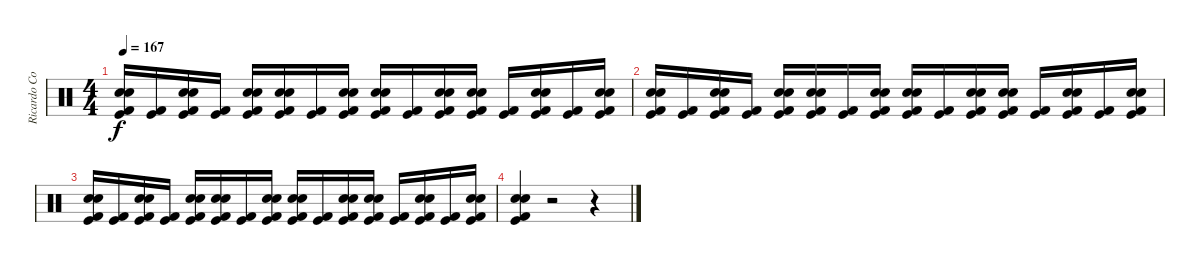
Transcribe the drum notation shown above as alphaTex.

\track ("Ricardo Confessori" "Ricardo Co") {instrument percussion}
\staff {score}
\articulation defaults
\ts (4 4)
\tempo 167
\clef neutral
\ks c
("Electric Snare (hit)" "Snare (hit) 2" "Kick (hit) 2" "Kick (hit)").16{dy f} ("Kick (hit) 2" "Kick (hit)").16 ("Electric Snare (hit)" "Snare (hit) 2" "Kick (hit) 2" "Kick (hit)").16 ("Kick (hit) 2" "Kick (hit)").16 ("Electric Snare (hit)" "Snare (hit) 2" "Kick (hit) 2" "Kick (hit)").16 ("Snare (hit) 2" "Electric Snare (hit)" "Kick (hit) 2" "Kick (hit)").16 ("Kick (hit) 2" "Kick (hit)").16 ("Electric Snare (hit)" "Snare (hit) 2" "Kick (hit) 2" "Kick (hit)").16 ("Electric Snare (hit)" "Snare (hit) 2" "Kick (hit) 2" "Kick (hit)").16 ("Kick (hit) 2" "Kick (hit)").16 ("Electric Snare (hit)" "Snare (hit) 2" "Kick (hit) 2" "Kick (hit)").16 ("Electric Snare (hit)" "Snare (hit) 2" "Kick (hit) 2" "Kick (hit)").16 ("Kick (hit) 2" "Kick (hit)").16 ("Electric Snare (hit)" "Snare (hit) 2" "Kick (hit) 2" "Kick (hit)").16 ("Kick (hit) 2" "Kick (hit)").16 ("Electric Snare (hit)" "Snare (hit) 2" "Kick (hit) 2" "Kick (hit)").16 |
("Electric Snare (hit)" "Snare (hit) 2" "Kick (hit) 2" "Kick (hit)").16 ("Kick (hit) 2" "Kick (hit)").16 ("Electric Snare (hit)" "Snare (hit) 2" "Kick (hit) 2" "Kick (hit)").16 ("Kick (hit) 2" "Kick (hit)").16 ("Electric Snare (hit)" "Snare (hit) 2" "Kick (hit) 2" "Kick (hit)").16 ("Snare (hit) 2" "Electric Snare (hit)" "Kick (hit) 2" "Kick (hit)").16 ("Kick (hit) 2" "Kick (hit)").16 ("Electric Snare (hit)" "Snare (hit) 2" "Kick (hit) 2" "Kick (hit)").16 ("Electric Snare (hit)" "Snare (hit) 2" "Kick (hit) 2" "Kick (hit)").16 ("Kick (hit) 2" "Kick (hit)").16 ("Electric Snare (hit)" "Snare (hit) 2" "Kick (hit) 2" "Kick (hit)").16 ("Electric Snare (hit)" "Snare (hit) 2" "Kick (hit) 2" "Kick (hit)").16 ("Kick (hit) 2" "Kick (hit)").16 ("Electric Snare (hit)" "Snare (hit) 2" "Kick (hit) 2" "Kick (hit)").16 ("Kick (hit) 2" "Kick (hit)").16 ("Electric Snare (hit)" "Snare (hit) 2" "Kick (hit) 2" "Kick (hit)").16 |
("Electric Snare (hit)" "Snare (hit) 2" "Kick (hit) 2" "Kick (hit)").16 ("Kick (hit) 2" "Kick (hit)").16 ("Electric Snare (hit)" "Snare (hit) 2" "Kick (hit) 2" "Kick (hit)").16 ("Kick (hit) 2" "Kick (hit)").16 ("Electric Snare (hit)" "Snare (hit) 2" "Kick (hit) 2" "Kick (hit)").16 ("Snare (hit) 2" "Electric Snare (hit)" "Kick (hit) 2" "Kick (hit)").16 ("Kick (hit) 2" "Kick (hit)").16 ("Electric Snare (hit)" "Snare (hit) 2" "Kick (hit) 2" "Kick (hit)").16 ("Electric Snare (hit)" "Snare (hit) 2" "Kick (hit) 2" "Kick (hit)").16 ("Kick (hit) 2" "Kick (hit)").16 ("Electric Snare (hit)" "Snare (hit) 2" "Kick (hit) 2" "Kick (hit)").16 ("Electric Snare (hit)" "Snare (hit) 2" "Kick (hit) 2" "Kick (hit)").16 ("Kick (hit) 2" "Kick (hit)").16 ("Electric Snare (hit)" "Snare (hit) 2" "Kick (hit) 2" "Kick (hit)").16 ("Kick (hit) 2" "Kick (hit)").16 ("Electric Snare (hit)" "Snare (hit) 2" "Kick (hit) 2" "Kick (hit)").16 |
("Electric Snare (hit)" "Snare (hit) 2" "Kick (hit) 2" "Kick (hit)").4 r.2 r.4
